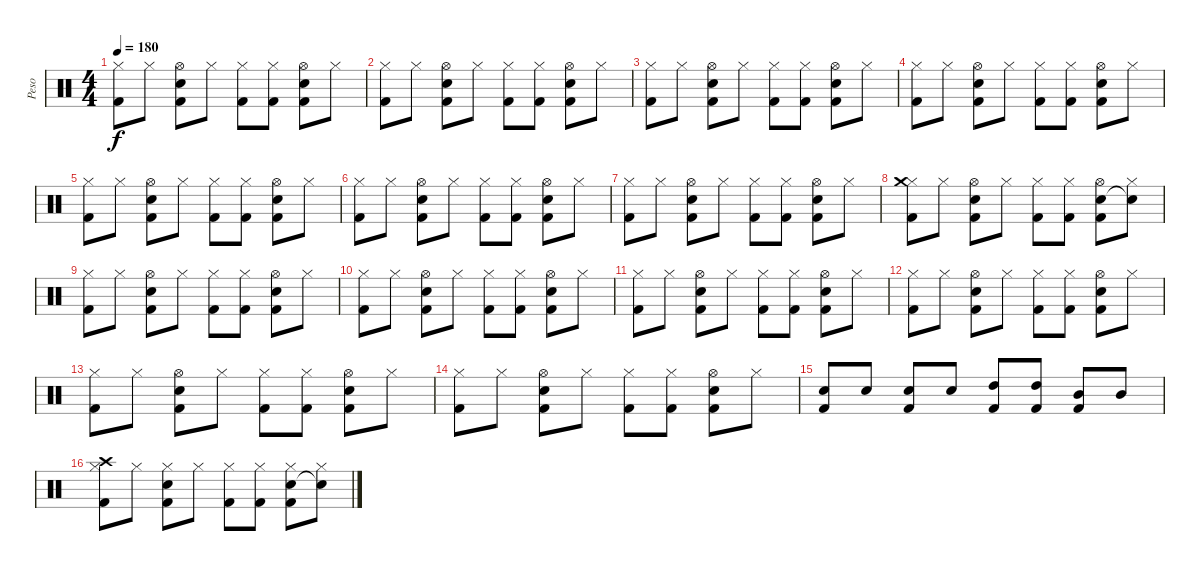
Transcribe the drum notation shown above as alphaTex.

\track ("Peso" "Peso") {instrument percussion}
\staff {score}
\articulation defaults
\ts (4 4)
\tempo 180
\clef neutral
\ks c
("Hi-Hat (closed)" "Kick (hit) 2").8{dy f} "Hi-Hat (closed)".8 ("Hi-Hat (open)" "Electric Snare (hit)" "Kick (hit) 2").8 "Hi-Hat (closed)".8 ("Hi-Hat (closed)" "Kick (hit) 2").8 ("Hi-Hat (closed)" "Kick (hit) 2").8 ("Hi-Hat (open)" "Electric Snare (hit)" "Kick (hit) 2").8 "Hi-Hat (closed)".8 |
("Hi-Hat (closed)" "Kick (hit) 2").8 "Hi-Hat (closed)".8 ("Hi-Hat (open)" "Electric Snare (hit)" "Kick (hit) 2").8 "Hi-Hat (closed)".8 ("Hi-Hat (closed)" "Kick (hit) 2").8 ("Hi-Hat (closed)" "Kick (hit) 2").8 ("Hi-Hat (open)" "Electric Snare (hit)" "Kick (hit) 2").8 "Hi-Hat (closed)".8 |
("Hi-Hat (closed)" "Kick (hit) 2").8 "Hi-Hat (closed)".8 ("Hi-Hat (open)" "Electric Snare (hit)" "Kick (hit) 2").8 "Hi-Hat (closed)".8 ("Hi-Hat (closed)" "Kick (hit) 2").8 ("Hi-Hat (closed)" "Kick (hit) 2").8 ("Hi-Hat (open)" "Electric Snare (hit)" "Kick (hit) 2").8 "Hi-Hat (closed)".8 |
("Hi-Hat (closed)" "Kick (hit) 2").8 "Hi-Hat (closed)".8 ("Hi-Hat (open)" "Electric Snare (hit)" "Kick (hit) 2").8 "Hi-Hat (closed)".8 ("Hi-Hat (closed)" "Kick (hit) 2").8 ("Hi-Hat (closed)" "Kick (hit) 2").8 ("Hi-Hat (open)" "Electric Snare (hit)" "Kick (hit) 2").8 "Hi-Hat (closed)".8 |
("Hi-Hat (closed)" "Kick (hit) 2").8 "Hi-Hat (closed)".8 ("Hi-Hat (open)" "Electric Snare (hit)" "Kick (hit) 2").8 "Hi-Hat (closed)".8 ("Hi-Hat (closed)" "Kick (hit) 2").8 ("Hi-Hat (closed)" "Kick (hit) 2").8 ("Hi-Hat (open)" "Electric Snare (hit)" "Kick (hit) 2").8 "Hi-Hat (closed)".8 |
("Hi-Hat (closed)" "Kick (hit) 2").8 "Hi-Hat (closed)".8 ("Hi-Hat (open)" "Electric Snare (hit)" "Kick (hit) 2").8 "Hi-Hat (closed)".8 ("Hi-Hat (closed)" "Kick (hit) 2").8 ("Hi-Hat (closed)" "Kick (hit) 2").8 ("Hi-Hat (open)" "Electric Snare (hit)" "Kick (hit) 2").8 "Hi-Hat (closed)".8 |
("Hi-Hat (closed)" "Kick (hit) 2").8 "Hi-Hat (closed)".8 ("Hi-Hat (open)" "Electric Snare (hit)" "Kick (hit) 2").8 "Hi-Hat (closed)".8 ("Hi-Hat (closed)" "Kick (hit) 2").8 ("Hi-Hat (closed)" "Kick (hit) 2").8 ("Hi-Hat (open)" "Electric Snare (hit)" "Kick (hit) 2").8 "Hi-Hat (closed)".8 |
("Hi-Hat (closed)" "Crash medium (hit)" "Kick (hit) 2").8 "Hi-Hat (closed)".8 ("Hi-Hat (open)" "Electric Snare (hit)" "Kick (hit) 2").8 "Hi-Hat (closed)".8 ("Hi-Hat (closed)" "Kick (hit) 2").8 ("Hi-Hat (closed)" "Kick (hit) 2").8 ("Hi-Hat (open)" "Electric Snare (hit)" "Kick (hit) 2").8 ("Hi-Hat (closed)" "Snare (hit)"{t}).8 |
("Hi-Hat (closed)" "Kick (hit) 2").8 "Hi-Hat (closed)".8 ("Hi-Hat (open)" "Electric Snare (hit)" "Kick (hit) 2").8 "Hi-Hat (closed)".8 ("Hi-Hat (closed)" "Kick (hit) 2").8 ("Hi-Hat (closed)" "Kick (hit) 2").8 ("Hi-Hat (open)" "Electric Snare (hit)" "Kick (hit) 2").8 "Hi-Hat (closed)".8 |
("Hi-Hat (closed)" "Kick (hit) 2").8 "Hi-Hat (closed)".8 ("Hi-Hat (open)" "Electric Snare (hit)" "Kick (hit) 2").8 "Hi-Hat (closed)".8 ("Hi-Hat (closed)" "Kick (hit) 2").8 ("Hi-Hat (closed)" "Kick (hit) 2").8 ("Hi-Hat (open)" "Electric Snare (hit)" "Kick (hit) 2").8 "Hi-Hat (closed)".8 |
("Hi-Hat (closed)" "Kick (hit) 2").8 "Hi-Hat (closed)".8 ("Hi-Hat (open)" "Electric Snare (hit)" "Kick (hit) 2").8 "Hi-Hat (closed)".8 ("Hi-Hat (closed)" "Kick (hit) 2").8 ("Hi-Hat (closed)" "Kick (hit) 2").8 ("Hi-Hat (open)" "Electric Snare (hit)" "Kick (hit) 2").8 "Hi-Hat (closed)".8 |
("Hi-Hat (closed)" "Kick (hit) 2").8 "Hi-Hat (closed)".8 ("Hi-Hat (open)" "Electric Snare (hit)" "Kick (hit) 2").8 "Hi-Hat (closed)".8 ("Hi-Hat (closed)" "Kick (hit) 2").8 ("Hi-Hat (closed)" "Kick (hit) 2").8 ("Hi-Hat (open)" "Electric Snare (hit)" "Kick (hit) 2").8 "Hi-Hat (closed)".8 |
("Hi-Hat (closed)" "Kick (hit) 2").8 "Hi-Hat (closed)".8 ("Hi-Hat (open)" "Electric Snare (hit)" "Kick (hit) 2").8 "Hi-Hat (closed)".8 ("Hi-Hat (closed)" "Kick (hit) 2").8 ("Hi-Hat (closed)" "Kick (hit) 2").8 ("Hi-Hat (open)" "Electric Snare (hit)" "Kick (hit) 2").8 "Hi-Hat (closed)".8 |
("Hi-Hat (closed)" "Kick (hit) 2").8 "Hi-Hat (closed)".8 ("Hi-Hat (open)" "Electric Snare (hit)" "Kick (hit) 2").8 "Hi-Hat (closed)".8 ("Hi-Hat (closed)" "Kick (hit) 2").8 ("Hi-Hat (closed)" "Kick (hit) 2").8 ("Hi-Hat (open)" "Electric Snare (hit)" "Kick (hit) 2").8 "Hi-Hat (closed)".8 |
("Snare (hit) 2" "Kick (hit) 2").8 "Snare (hit) 2".8 ("Snare (hit) 2" "Kick (hit) 2").8 "Snare (hit) 2".8 ("High Tom (hit)" "Kick (hit) 2").8 ("High Tom (hit)" "Kick (hit) 2").8 ("Mid Tom (hit)" "Kick (hit) 2").8 "Mid Tom (hit)".8 |
("Hi-Hat (closed)" "Crash high (hit)" "Kick (hit) 2").8 "Hi-Hat (closed)".8 ("Hi-Hat (closed)" "Electric Snare (hit)" "Kick (hit) 2").8 "Hi-Hat (closed)".8 ("Hi-Hat (closed)" "Kick (hit) 2").8 ("Hi-Hat (closed)" "Kick (hit) 2").8 ("Hi-Hat (closed)" "Electric Snare (hit)" "Kick (hit) 2").8 ("Hi-Hat (closed)" "Snare (hit)"{t}).8
